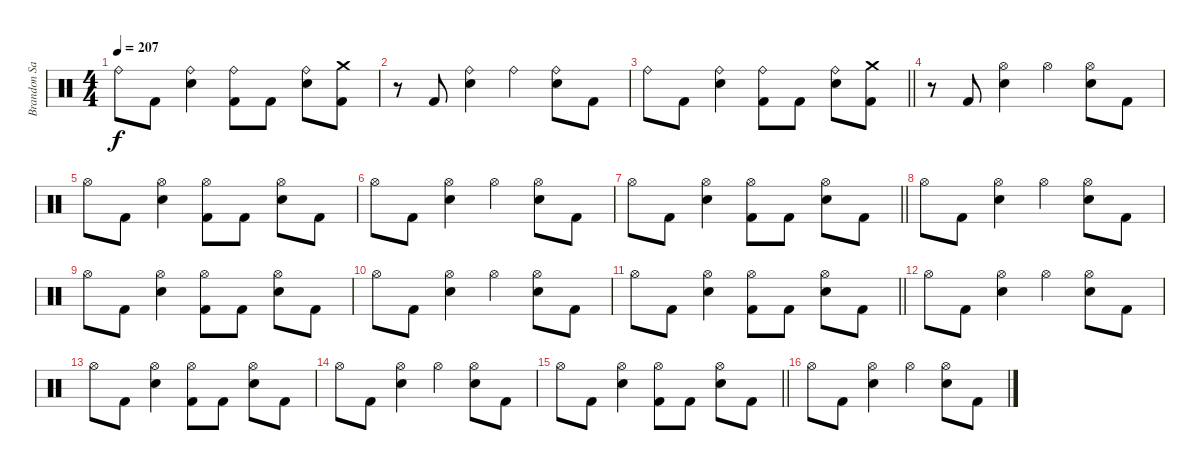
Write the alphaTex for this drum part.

\track ("Brandon Saller" "Brandon Sa") {instrument percussion}
\staff {score}
\articulation defaults
\ts (4 4)
\tempo 207
\clef neutral
\ks c "Ride (bell)".8{dy f} "Kick (hit) 2".8
("Ride (bell)" "Electric Snare (hit)").4 ("Ride (bell)" "Kick (hit) 2").8 "Kick (hit) 2".8 ("Ride (bell)" "Electric Snare (hit)").8 ("Crash medium (hit)" "Kick (hit) 2").8 |
r.8 "Kick (hit) 2".8 ("Ride (bell)" "Electric Snare (hit)").4 "Ride (bell)".4 ("Ride (bell)" "Electric Snare (hit)").8 "Kick (hit) 2".8 |
\barLineRight lightlight "Ride (bell)".8 "Kick (hit) 2".8
("Ride (bell)" "Electric Snare (hit)").4 ("Ride (bell)" "Kick (hit) 2").8 "Kick (hit) 2".8 ("Ride (bell)" "Electric Snare (hit)").8 ("Crash medium (hit)" "Kick (hit) 2").8 |
r.8 "Kick (hit) 2".8 ("Hi-Hat (open)" "Electric Snare (hit)").4 "Hi-Hat (open)".4 ("Hi-Hat (open)" "Electric Snare (hit)").8 "Kick (hit) 2".8 |
"Hi-Hat (open)".8 "Kick (hit) 2".8 ("Hi-Hat (open)" "Electric Snare (hit)").4 ("Hi-Hat (open)" "Kick (hit) 2").8 "Kick (hit) 2".8 ("Hi-Hat (open)" "Electric Snare (hit)").8 "Kick (hit) 2".8 |
"Hi-Hat (open)".8 "Kick (hit) 2".8 ("Hi-Hat (open)" "Electric Snare (hit)").4 "Hi-Hat (open)".4 ("Hi-Hat (open)" "Electric Snare (hit)").8 "Kick (hit) 2".8 |
\barLineRight lightlight "Hi-Hat (open)".8 "Kick (hit) 2".8
("Hi-Hat (open)" "Electric Snare (hit)").4 ("Hi-Hat (open)" "Kick (hit) 2").8 "Kick (hit) 2".8 ("Hi-Hat (open)" "Electric Snare (hit)").8 "Kick (hit) 2".8 |
"Hi-Hat (open)".8 "Kick (hit) 2".8 ("Hi-Hat (open)" "Electric Snare (hit)").4 "Hi-Hat (open)".4 ("Hi-Hat (open)" "Electric Snare (hit)").8 "Kick (hit) 2".8 |
"Hi-Hat (open)".8 "Kick (hit) 2".8 ("Hi-Hat (open)" "Electric Snare (hit)").4 ("Hi-Hat (open)" "Kick (hit) 2").8 "Kick (hit) 2".8 ("Hi-Hat (open)" "Electric Snare (hit)").8 "Kick (hit) 2".8 |
"Hi-Hat (open)".8 "Kick (hit) 2".8 ("Hi-Hat (open)" "Electric Snare (hit)").4 "Hi-Hat (open)".4 ("Hi-Hat (open)" "Electric Snare (hit)").8 "Kick (hit) 2".8 |
\barLineRight lightlight "Hi-Hat (open)".8 "Kick (hit) 2".8
("Hi-Hat (open)" "Electric Snare (hit)").4 ("Hi-Hat (open)" "Kick (hit) 2").8 "Kick (hit) 2".8 ("Hi-Hat (open)" "Electric Snare (hit)").8 "Kick (hit) 2".8 |
"Hi-Hat (open)".8 "Kick (hit) 2".8 ("Hi-Hat (open)" "Electric Snare (hit)").4 "Hi-Hat (open)".4 ("Hi-Hat (open)" "Electric Snare (hit)").8 "Kick (hit) 2".8 |
"Hi-Hat (open)".8 "Kick (hit) 2".8 ("Hi-Hat (open)" "Electric Snare (hit)").4 ("Hi-Hat (open)" "Kick (hit) 2").8 "Kick (hit) 2".8 ("Hi-Hat (open)" "Electric Snare (hit)").8 "Kick (hit) 2".8 |
"Hi-Hat (open)".8 "Kick (hit) 2".8 ("Hi-Hat (open)" "Electric Snare (hit)").4 "Hi-Hat (open)".4 ("Hi-Hat (open)" "Electric Snare (hit)").8 "Kick (hit) 2".8 |
\barLineRight lightlight "Hi-Hat (open)".8 "Kick (hit) 2".8
("Hi-Hat (open)" "Electric Snare (hit)").4 ("Hi-Hat (open)" "Kick (hit) 2").8 "Kick (hit) 2".8 ("Hi-Hat (open)" "Electric Snare (hit)").8 "Kick (hit) 2".8 |
"Hi-Hat (open)".8 "Kick (hit) 2".8 ("Hi-Hat (open)" "Electric Snare (hit)").4 "Hi-Hat (open)".4 ("Hi-Hat (open)" "Electric Snare (hit)").8 "Kick (hit) 2".8
